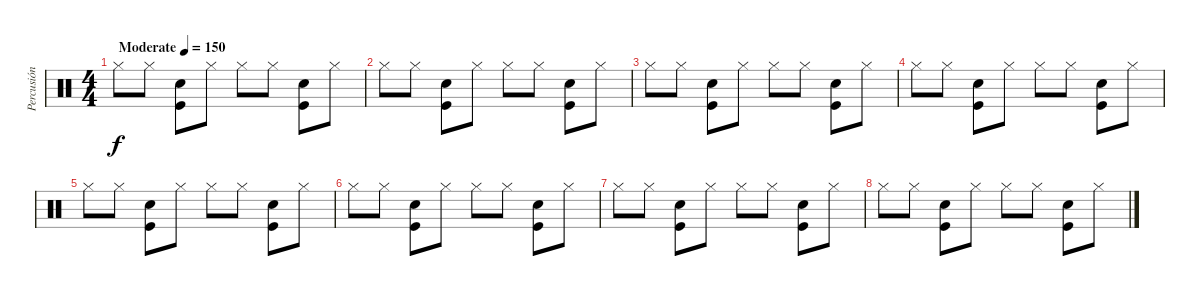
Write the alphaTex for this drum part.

\track ("Percusión" "Percusión") {instrument percussion}
\staff {score}
\articulation defaults
\ts (4 4)
\tempo (150 "Moderate")
\clef neutral
\ks c "Hi-Hat (closed)".8{dy f} "Hi-Hat (closed)".8
("Snare (hit) 2" "Kick (hit)").8 "Hi-Hat (closed)".8 "Hi-Hat (closed)".8 "Hi-Hat (closed)".8 ("Snare (hit) 2" "Kick (hit)").8 "Hi-Hat (closed)".8 |
"Hi-Hat (closed)".8 "Hi-Hat (closed)".8 ("Snare (hit) 2" "Kick (hit)").8 "Hi-Hat (closed)".8 "Hi-Hat (closed)".8 "Hi-Hat (closed)".8 ("Snare (hit) 2" "Kick (hit)").8 "Hi-Hat (closed)".8 |
"Hi-Hat (closed)".8 "Hi-Hat (closed)".8 ("Snare (hit) 2" "Kick (hit)").8 "Hi-Hat (closed)".8 "Hi-Hat (closed)".8 "Hi-Hat (closed)".8 ("Snare (hit) 2" "Kick (hit)").8 "Hi-Hat (closed)".8 |
"Hi-Hat (closed)".8 "Hi-Hat (closed)".8 ("Snare (hit) 2" "Kick (hit)").8 "Hi-Hat (closed)".8 "Hi-Hat (closed)".8 "Hi-Hat (closed)".8 ("Snare (hit) 2" "Kick (hit)").8 "Hi-Hat (closed)".8 |
"Hi-Hat (closed)".8 "Hi-Hat (closed)".8 ("Snare (hit) 2" "Kick (hit)").8 "Hi-Hat (closed)".8 "Hi-Hat (closed)".8 "Hi-Hat (closed)".8 ("Snare (hit) 2" "Kick (hit)").8 "Hi-Hat (closed)".8 |
"Hi-Hat (closed)".8 "Hi-Hat (closed)".8 ("Snare (hit) 2" "Kick (hit)").8 "Hi-Hat (closed)".8 "Hi-Hat (closed)".8 "Hi-Hat (closed)".8 ("Snare (hit) 2" "Kick (hit)").8 "Hi-Hat (closed)".8 |
"Hi-Hat (closed)".8 "Hi-Hat (closed)".8 ("Snare (hit) 2" "Kick (hit)").8 "Hi-Hat (closed)".8 "Hi-Hat (closed)".8 "Hi-Hat (closed)".8 ("Snare (hit) 2" "Kick (hit)").8 "Hi-Hat (closed)".8 |
"Hi-Hat (closed)".8 "Hi-Hat (closed)".8 ("Snare (hit) 2" "Kick (hit)").8 "Hi-Hat (closed)".8 "Hi-Hat (closed)".8 "Hi-Hat (closed)".8 ("Snare (hit) 2" "Kick (hit)").8 "Hi-Hat (closed)".8
